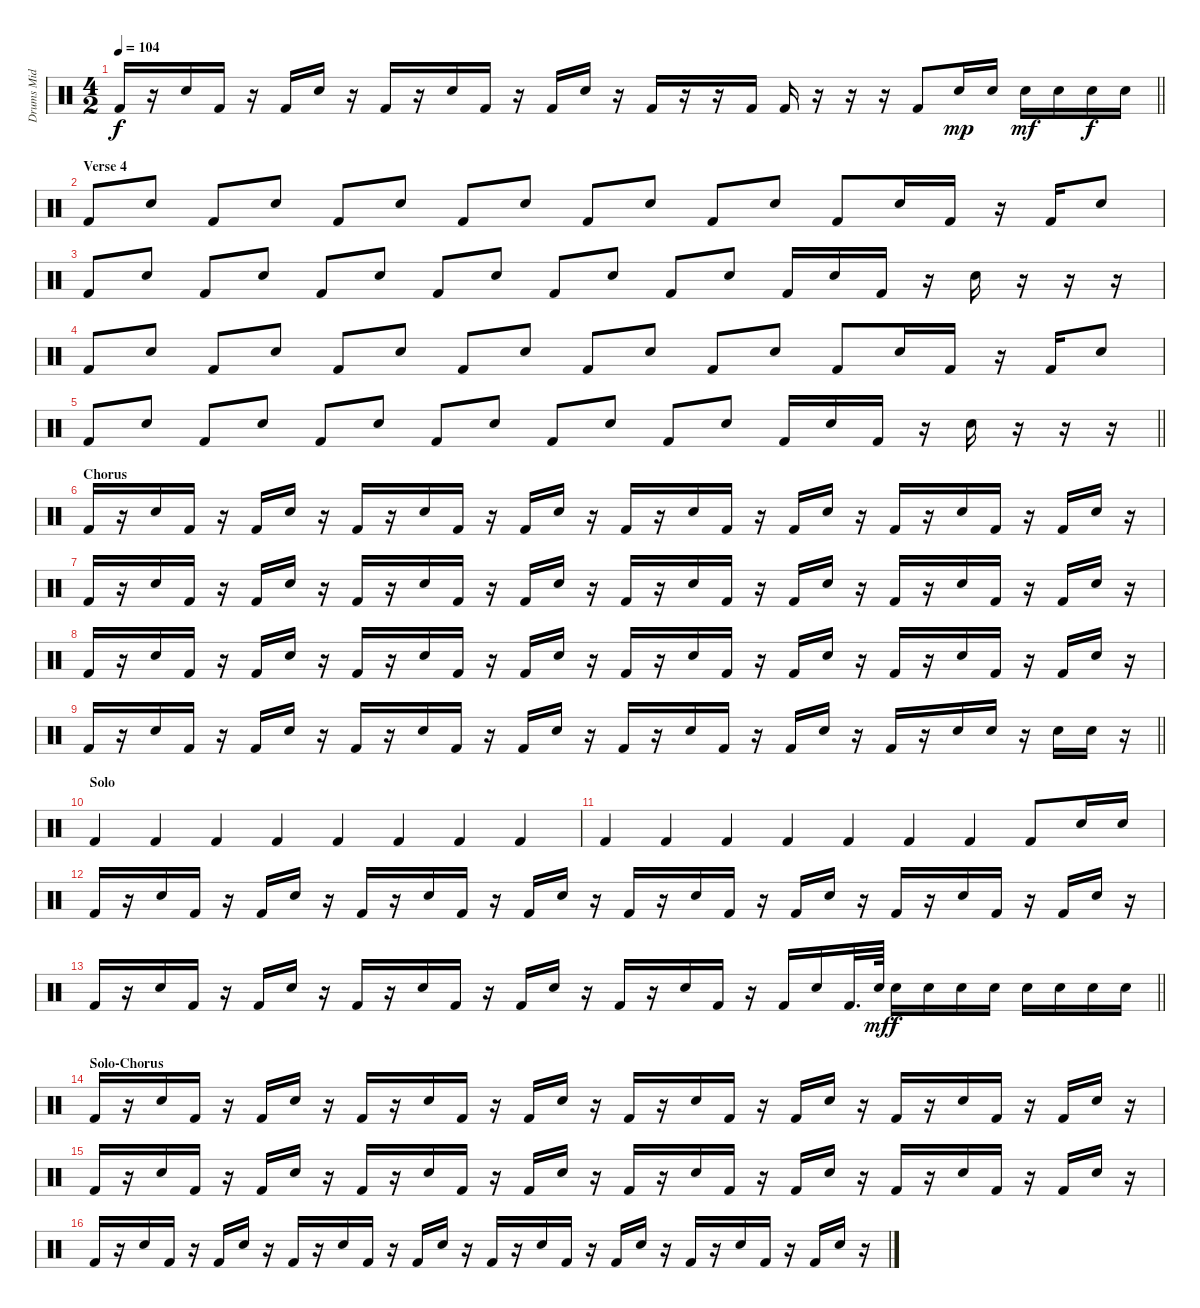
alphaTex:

\track ("Drums Mid" "Drums Mid") {instrument percussion}
\staff {score}
\articulation defaults
\ts (4 2)
\tempo 104
\clef neutral
\barLineRight lightlight
\ks c "Kick (hit) 2".16{dy f}
r.16 "Snare (hit) 2".16 "Kick (hit) 2".16 r.16 "Kick (hit) 2".16 "Snare (hit) 2".16 r.16 "Kick (hit) 2".16 r.16 "Snare (hit) 2".16 "Kick (hit) 2".16 r.16 "Kick (hit) 2".16 "Snare (hit) 2".16 r.16 "Kick (hit) 2".16 r.16 r.16 "Kick (hit) 2".16 "Kick (hit) 2".16 r.16 r.16 r.16 "Kick (hit) 2".8 "Snare (hit) 2".16{dy mp} "Snare (hit) 2".16 "Snare (hit) 2".16{dy mf} "Snare (hit) 2".16 "Snare (hit) 2".16{dy f} "Snare (hit) 2".16 |
\section ("" "Verse 4")
"Kick (hit) 2".8 "Snare (hit) 2".8 "Kick (hit) 2".8 "Snare (hit) 2".8 "Kick (hit) 2".8 "Snare (hit) 2".8 "Kick (hit) 2".8 "Snare (hit) 2".8 "Kick (hit) 2".8 "Snare (hit) 2".8 "Kick (hit) 2".8 "Snare (hit) 2".8 "Kick (hit) 2".8 "Snare (hit) 2".16 "Kick (hit) 2".16 r.16 "Kick (hit) 2".16 "Snare (hit) 2".8 |
"Kick (hit) 2".8 "Snare (hit) 2".8 "Kick (hit) 2".8 "Snare (hit) 2".8 "Kick (hit) 2".8 "Snare (hit) 2".8 "Kick (hit) 2".8 "Snare (hit) 2".8 "Kick (hit) 2".8 "Snare (hit) 2".8 "Kick (hit) 2".8 "Snare (hit) 2".8 "Kick (hit) 2".16 "Snare (hit) 2".16 "Kick (hit) 2".16 r.16 "Snare (hit) 2".16 r.16 r.16 r.16 |
"Kick (hit) 2".8 "Snare (hit) 2".8 "Kick (hit) 2".8 "Snare (hit) 2".8 "Kick (hit) 2".8 "Snare (hit) 2".8 "Kick (hit) 2".8 "Snare (hit) 2".8 "Kick (hit) 2".8 "Snare (hit) 2".8 "Kick (hit) 2".8 "Snare (hit) 2".8 "Kick (hit) 2".8 "Snare (hit) 2".16 "Kick (hit) 2".16 r.16 "Kick (hit) 2".16 "Snare (hit) 2".8 |
\barLineRight lightlight "Kick (hit) 2".8 "Snare (hit) 2".8 "Kick (hit) 2".8 "Snare (hit) 2".8 "Kick (hit) 2".8 "Snare (hit) 2".8 "Kick (hit) 2".8 "Snare (hit) 2".8 "Kick (hit) 2".8 "Snare (hit) 2".8 "Kick (hit) 2".8 "Snare (hit) 2".8 "Kick (hit) 2".16 "Snare (hit) 2".16 "Kick (hit) 2".16
r.16 "Snare (hit) 2".16 r.16 r.16 r.16 |
\section ("" "Chorus")
"Kick (hit) 2".16 r.16 "Snare (hit) 2".16 "Kick (hit) 2".16 r.16 "Kick (hit) 2".16 "Snare (hit) 2".16 r.16 "Kick (hit) 2".16 r.16 "Snare (hit) 2".16 "Kick (hit) 2".16 r.16 "Kick (hit) 2".16 "Snare (hit) 2".16 r.16 "Kick (hit) 2".16 r.16 "Snare (hit) 2".16 "Kick (hit) 2".16 r.16 "Kick (hit) 2".16 "Snare (hit) 2".16 r.16 "Kick (hit) 2".16 r.16 "Snare (hit) 2".16 "Kick (hit) 2".16 r.16 "Kick (hit) 2".16 "Snare (hit) 2".16 r.16 |
"Kick (hit) 2".16 r.16 "Snare (hit) 2".16 "Kick (hit) 2".16 r.16 "Kick (hit) 2".16 "Snare (hit) 2".16 r.16 "Kick (hit) 2".16 r.16 "Snare (hit) 2".16 "Kick (hit) 2".16 r.16 "Kick (hit) 2".16 "Snare (hit) 2".16 r.16 "Kick (hit) 2".16 r.16 "Snare (hit) 2".16 "Kick (hit) 2".16 r.16 "Kick (hit) 2".16 "Snare (hit) 2".16 r.16 "Kick (hit) 2".16 r.16 "Snare (hit) 2".16 "Kick (hit) 2".16 r.16 "Kick (hit) 2".16 "Snare (hit) 2".16 r.16 |
"Kick (hit) 2".16 r.16 "Snare (hit) 2".16 "Kick (hit) 2".16 r.16 "Kick (hit) 2".16 "Snare (hit) 2".16 r.16 "Kick (hit) 2".16 r.16 "Snare (hit) 2".16 "Kick (hit) 2".16 r.16 "Kick (hit) 2".16 "Snare (hit) 2".16 r.16 "Kick (hit) 2".16 r.16 "Snare (hit) 2".16 "Kick (hit) 2".16 r.16 "Kick (hit) 2".16 "Snare (hit) 2".16 r.16 "Kick (hit) 2".16 r.16 "Snare (hit) 2".16 "Kick (hit) 2".16 r.16 "Kick (hit) 2".16 "Snare (hit) 2".16 r.16 |
\barLineRight lightlight "Kick (hit) 2".16
r.16 "Snare (hit) 2".16 "Kick (hit) 2".16 r.16 "Kick (hit) 2".16 "Snare (hit) 2".16 r.16 "Kick (hit) 2".16 r.16 "Snare (hit) 2".16 "Kick (hit) 2".16 r.16 "Kick (hit) 2".16 "Snare (hit) 2".16 r.16 "Kick (hit) 2".16 r.16 "Snare (hit) 2".16 "Kick (hit) 2".16 r.16 "Kick (hit) 2".16 "Snare (hit) 2".16 r.16 "Kick (hit) 2".16 r.16 "Snare (hit) 2".16 "Snare (hit) 2".16 r.16 "Snare (hit) 2".16 "Snare (hit) 2".16 r.16 |
\section ("" "Solo")
"Kick (hit) 2".4 "Kick (hit) 2".4 "Kick (hit) 2".4 "Kick (hit) 2".4 "Kick (hit) 2".4 "Kick (hit) 2".4 "Kick (hit) 2".4 "Kick (hit) 2".4 |
"Kick (hit) 2".4 "Kick (hit) 2".4 "Kick (hit) 2".4 "Kick (hit) 2".4 "Kick (hit) 2".4 "Kick (hit) 2".4 "Kick (hit) 2".4 "Kick (hit) 2".8 "Snare (hit) 2".16 "Snare (hit) 2".16 |
"Kick (hit) 2".16 r.16 "Snare (hit) 2".16 "Kick (hit) 2".16 r.16 "Kick (hit) 2".16 "Snare (hit) 2".16 r.16 "Kick (hit) 2".16 r.16 "Snare (hit) 2".16 "Kick (hit) 2".16 r.16 "Kick (hit) 2".16 "Snare (hit) 2".16 r.16 "Kick (hit) 2".16 r.16 "Snare (hit) 2".16 "Kick (hit) 2".16 r.16 "Kick (hit) 2".16 "Snare (hit) 2".16 r.16 "Kick (hit) 2".16 r.16 "Snare (hit) 2".16 "Kick (hit) 2".16 r.16 "Kick (hit) 2".16 "Snare (hit) 2".16 r.16 |
\barLineRight lightlight "Kick (hit) 2".16
r.16 "Snare (hit) 2".16 "Kick (hit) 2".16 r.16 "Kick (hit) 2".16 "Snare (hit) 2".16 r.16 "Kick (hit) 2".16 r.16 "Snare (hit) 2".16 "Kick (hit) 2".16 r.16 "Kick (hit) 2".16 "Snare (hit) 2".16 r.16 "Kick (hit) 2".16 r.16 "Snare (hit) 2".16 "Kick (hit) 2".16 r.16 "Kick (hit) 2".16 "Snare (hit) 2".16 "Kick (hit) 2".32{d} "Snare (hit) 2".64{dy mf} "Snare (hit) 2".16{dy f} "Snare (hit) 2".16 "Snare (hit) 2".16 "Snare (hit) 2".16 "Snare (hit) 2".16 "Snare (hit) 2".16 "Snare (hit) 2".16 "Snare (hit) 2".16 |
\section ("" "Solo-Chorus")
"Kick (hit) 2".16 r.16 "Snare (hit) 2".16 "Kick (hit) 2".16 r.16 "Kick (hit) 2".16 "Snare (hit) 2".16 r.16 "Kick (hit) 2".16 r.16 "Snare (hit) 2".16 "Kick (hit) 2".16 r.16 "Kick (hit) 2".16 "Snare (hit) 2".16 r.16 "Kick (hit) 2".16 r.16 "Snare (hit) 2".16 "Kick (hit) 2".16 r.16 "Kick (hit) 2".16 "Snare (hit) 2".16 r.16 "Kick (hit) 2".16 r.16 "Snare (hit) 2".16 "Kick (hit) 2".16 r.16 "Kick (hit) 2".16 "Snare (hit) 2".16 r.16 |
"Kick (hit) 2".16 r.16 "Snare (hit) 2".16 "Kick (hit) 2".16 r.16 "Kick (hit) 2".16 "Snare (hit) 2".16 r.16 "Kick (hit) 2".16 r.16 "Snare (hit) 2".16 "Kick (hit) 2".16 r.16 "Kick (hit) 2".16 "Snare (hit) 2".16 r.16 "Kick (hit) 2".16 r.16 "Snare (hit) 2".16 "Kick (hit) 2".16 r.16 "Kick (hit) 2".16 "Snare (hit) 2".16 r.16 "Kick (hit) 2".16 r.16 "Snare (hit) 2".16 "Kick (hit) 2".16 r.16 "Kick (hit) 2".16 "Snare (hit) 2".16 r.16 |
"Kick (hit) 2".16 r.16 "Snare (hit) 2".16 "Kick (hit) 2".16 r.16 "Kick (hit) 2".16 "Snare (hit) 2".16 r.16 "Kick (hit) 2".16 r.16 "Snare (hit) 2".16 "Kick (hit) 2".16 r.16 "Kick (hit) 2".16 "Snare (hit) 2".16 r.16 "Kick (hit) 2".16 r.16 "Snare (hit) 2".16 "Kick (hit) 2".16 r.16 "Kick (hit) 2".16 "Snare (hit) 2".16 r.16 "Kick (hit) 2".16 r.16 "Snare (hit) 2".16 "Kick (hit) 2".16 r.16 "Kick (hit) 2".16 "Snare (hit) 2".16 r.16
